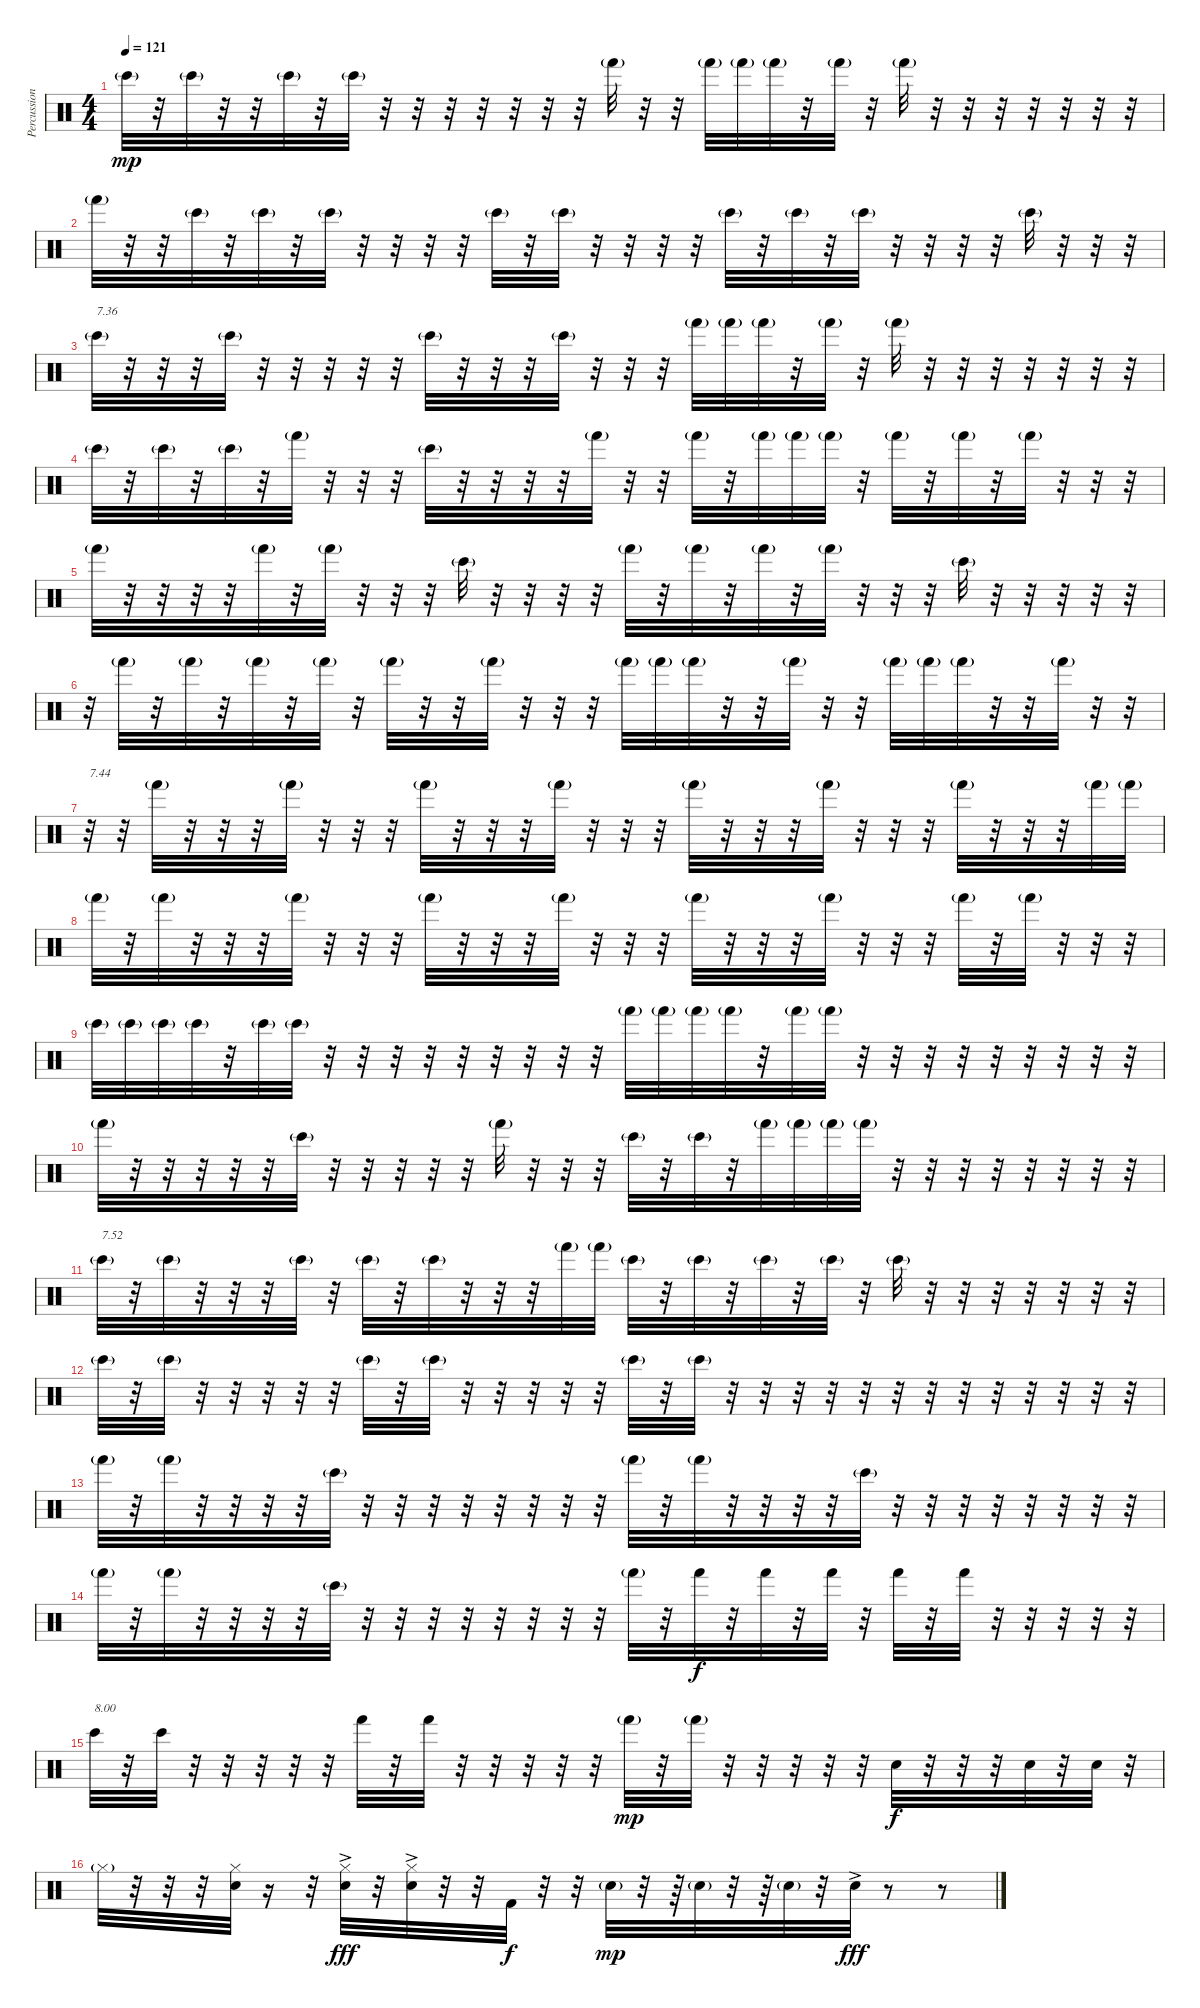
\track ("Percussions" "Percussion") {instrument percussion}
\staff {score}
\articulation defaults
\ts (4 4)
\tempo 121
\clef neutral
\ks c "Bongo High (hit)"{g}.32{dy mp}
r.32 "Bongo High (hit)"{g}.32 r.32 r.32 "Bongo High (hit)"{g}.32 r.32 "Bongo High (hit)"{g}.32 r.32 r.32 r.32 r.32 r.32 r.32 r.32 "Hand (hit)"{g}.32 r.32 r.32 "Hand (hit)"{g}.32 "Hand (hit)"{g}.32 "Hand (hit)"{g}.32 r.32 "Hand (hit)"{g}.32 r.32 "Hand (hit)"{g}.32 r.32 r.32 r.32 r.32 r.32 r.32 r.32 |
"Hand (hit)"{g}.32 r.32 r.32 "Bongo High (hit)"{g}.32 r.32 "Bongo High (hit)"{g}.32 r.32 "Bongo High (hit)"{g}.32 r.32 r.32 r.32 r.32 "Bongo High (hit)"{g}.32 r.32 "Bongo High (hit)"{g}.32 r.32 r.32 r.32 r.32 "Bongo High (hit)"{g}.32 r.32 "Bongo High (hit)"{g}.32 r.32 "Bongo High (hit)"{g}.32 r.32 r.32 r.32 r.32 "Bongo High (hit)"{g}.32 r.32 r.32 r.32 |
"Bongo High (hit)"{g}.32{txt "7.36"} r.32 r.32 r.32 "Bongo High (hit)"{g}.32 r.32 r.32 r.32 r.32 r.32 "Bongo High (hit)"{g}.32 r.32 r.32 r.32 "Bongo High (hit)"{g}.32 r.32 r.32 r.32 "Hand (hit)"{g}.32 "Hand (hit)"{g}.32 "Hand (hit)"{g}.32 r.32 "Hand (hit)"{g}.32 r.32 "Hand (hit)"{g}.32 r.32 r.32 r.32 r.32 r.32 r.32 r.32 |
"Bongo High (hit)"{g}.32 r.32 "Bongo High (hit)"{g}.32 r.32 "Bongo High (hit)"{g}.32 r.32 "Hand (hit)"{g}.32 r.32 r.32 r.32 "Bongo High (hit)"{g}.32 r.32 r.32 r.32 r.32 "Hand (hit)"{g}.32 r.32 r.32 "Hand (hit)"{g}.32 r.32 "Hand (hit)"{g}.32 "Hand (hit)"{g}.32 "Hand (hit)"{g}.32 r.32 "Hand (hit)"{g}.32 r.32 "Hand (hit)"{g}.32 r.32 "Hand (hit)"{g}.32 r.32 r.32 r.32 |
"Hand (hit)"{g}.32 r.32 r.32 r.32 r.32 "Hand (hit)"{g}.32 r.32 "Hand (hit)"{g}.32 r.32 r.32 r.32 "Bongo High (hit)"{g}.32 r.32 r.32 r.32 r.32 "Hand (hit)"{g}.32 r.32 "Hand (hit)"{g}.32 r.32 "Hand (hit)"{g}.32 r.32 "Hand (hit)"{g}.32 r.32 r.32 r.32 "Bongo High (hit)"{g}.32 r.32 r.32 r.32 r.32 r.32 |
r.32 "Hand (hit)"{g}.32 r.32 "Hand (hit)"{g}.32 r.32 "Hand (hit)"{g}.32 r.32 "Hand (hit)"{g}.32 r.32 "Hand (hit)"{g}.32 r.32 r.32 "Hand (hit)"{g}.32 r.32 r.32 r.32 "Hand (hit)"{g}.32 "Hand (hit)"{g}.32 "Hand (hit)"{g}.32 r.32 r.32 "Hand (hit)"{g}.32 r.32 r.32 "Hand (hit)"{g}.32 "Hand (hit)"{g}.32 "Hand (hit)"{g}.32 r.32 r.32 "Hand (hit)"{g}.32 r.32 r.32 |
r.32{txt "7.44"} r.32 "Hand (hit)"{g}.32 r.32 r.32 r.32 "Hand (hit)"{g}.32 r.32 r.32 r.32 "Hand (hit)"{g}.32 r.32 r.32 r.32 "Hand (hit)"{g}.32 r.32 r.32 r.32 "Hand (hit)"{g}.32 r.32 r.32 r.32 "Hand (hit)"{g}.32 r.32 r.32 r.32 "Hand (hit)"{g}.32 r.32 r.32 r.32 "Hand (hit)"{g}.32 "Hand (hit)"{g}.32 |
"Hand (hit)"{g}.32 r.32 "Hand (hit)"{g}.32 r.32 r.32 r.32 "Hand (hit)"{g}.32 r.32 r.32 r.32 "Hand (hit)"{g}.32 r.32 r.32 r.32 "Hand (hit)"{g}.32 r.32 r.32 r.32 "Hand (hit)"{g}.32 r.32 r.32 r.32 "Hand (hit)"{g}.32 r.32 r.32 r.32 "Hand (hit)"{g}.32 r.32 "Hand (hit)"{g}.32 r.32 r.32 r.32 |
"Bongo High (hit)"{g}.32 "Bongo High (hit)"{g}.32 "Bongo High (hit)"{g}.32 "Bongo High (hit)"{g}.32 r.32 "Bongo High (hit)"{g}.32 "Bongo High (hit)"{g}.32 r.32 r.32 r.32 r.32 r.32 r.32 r.32 r.32 r.32 "Hand (hit)"{g}.32 "Hand (hit)"{g}.32 "Hand (hit)"{g}.32 "Hand (hit)"{g}.32 r.32 "Hand (hit)"{g}.32 "Hand (hit)"{g}.32 r.32 r.32 r.32 r.32 r.32 r.32 r.32 r.32 r.32 |
"Hand (hit)"{g}.32 r.32 r.32 r.32 r.32 r.32 "Bongo High (hit)"{g}.32 r.32 r.32 r.32 r.32 r.32 "Hand (hit)"{g}.32 r.32 r.32 r.32 "Bongo High (hit)"{g}.32 r.32 "Bongo High (hit)"{g}.32 r.32 "Hand (hit)"{g}.32 "Hand (hit)"{g}.32 "Hand (hit)"{g}.32 "Hand (hit)"{g}.32 r.32 r.32 r.32 r.32 r.32 r.32 r.32 r.32 |
"Bongo High (hit)"{g}.32{txt "7.52"} r.32 "Bongo High (hit)"{g}.32 r.32 r.32 r.32 "Bongo High (hit)"{g}.32 r.32 "Bongo High (hit)"{g}.32 r.32 "Bongo High (hit)"{g}.32 r.32 r.32 r.32 "Hand (hit)"{g}.32 "Hand (hit)"{g}.32 "Bongo High (hit)"{g}.32 r.32 "Bongo High (hit)"{g}.32 r.32 "Bongo High (hit)"{g}.32 r.32 "Bongo High (hit)"{g}.32 r.32 "Bongo High (hit)"{g}.32 r.32 r.32 r.32 r.32 r.32 r.32 r.32 |
"Bongo High (hit)"{g}.32 r.32 "Bongo High (hit)"{g}.32 r.32 r.32 r.32 r.32 r.32 "Bongo High (hit)"{g}.32 r.32 "Bongo High (hit)"{g}.32 r.32 r.32 r.32 r.32 r.32 "Bongo High (hit)"{g}.32 r.32 "Bongo High (hit)"{g}.32 r.32 r.32 r.32 r.32 r.32 r.32 r.32 r.32 r.32 r.32 r.32 r.32 r.32 |
"Hand (hit)"{g}.32 r.32 "Hand (hit)"{g}.32 r.32 r.32 r.32 r.32 "Bongo High (hit)"{g}.32 r.32 r.32 r.32 r.32 r.32 r.32 r.32 r.32 "Hand (hit)"{g}.32 r.32 "Hand (hit)"{g}.32 r.32 r.32 r.32 r.32 "Bongo High (hit)"{g}.32 r.32 r.32 r.32 r.32 r.32 r.32 r.32 r.32 |
"Hand (hit)"{g}.32 r.32 "Hand (hit)"{g}.32 r.32 r.32 r.32 r.32 "Bongo High (hit)"{g}.32 r.32 r.32 r.32 r.32 r.32 r.32 r.32 r.32 "Hand (hit)"{g}.32 r.32 "Hand (hit)".32{dy f} r.32 "Hand (hit)".32 r.32 "Hand (hit)".32 r.32 "Hand (hit)".32 r.32 "Hand (hit)".32 r.32 r.32 r.32 r.32 r.32 |
"Bongo High (hit)".32{txt "8.00"} r.32 "Bongo High (hit)".32 r.32 r.32 r.32 r.32 r.32 "Hand (hit)".32 r.32 "Hand (hit)".32 r.32 r.32 r.32 r.32 r.32 "Hand (hit)"{g}.32{dy mp} r.32 "Hand (hit)"{g}.32 r.32 r.32 r.32 r.32 r.32 "Electric Snare (hit)".32{dy f} r.32 r.32 r.32 "Electric Snare (hit)".32 r.32 "Electric Snare (hit)".32 r.32 |
"Hi-Hat (closed)"{g}.32 r.32 r.32 r.32 ("Hi-Hat (closed)" "Electric Snare (hit)").32 r.16 r.32 ("Hi-Hat (closed)"{ac} "Electric Snare (hit)").32{dy fff} r.32 ("Hi-Hat (closed)"{ac} "Electric Snare (hit)").32 r.32 r.32 "Kick (hit) 2".32{dy f} r.32 r.32 "Electric Snare (hit)"{g}.32{dy mp} r.32 r.64 "Electric Snare (hit)"{g}.32 r.32 r.64 "Electric Snare (hit)"{g}.32 r.32 "Electric Snare (hit)"{ac}.32{dy fff} r.8 r.8
